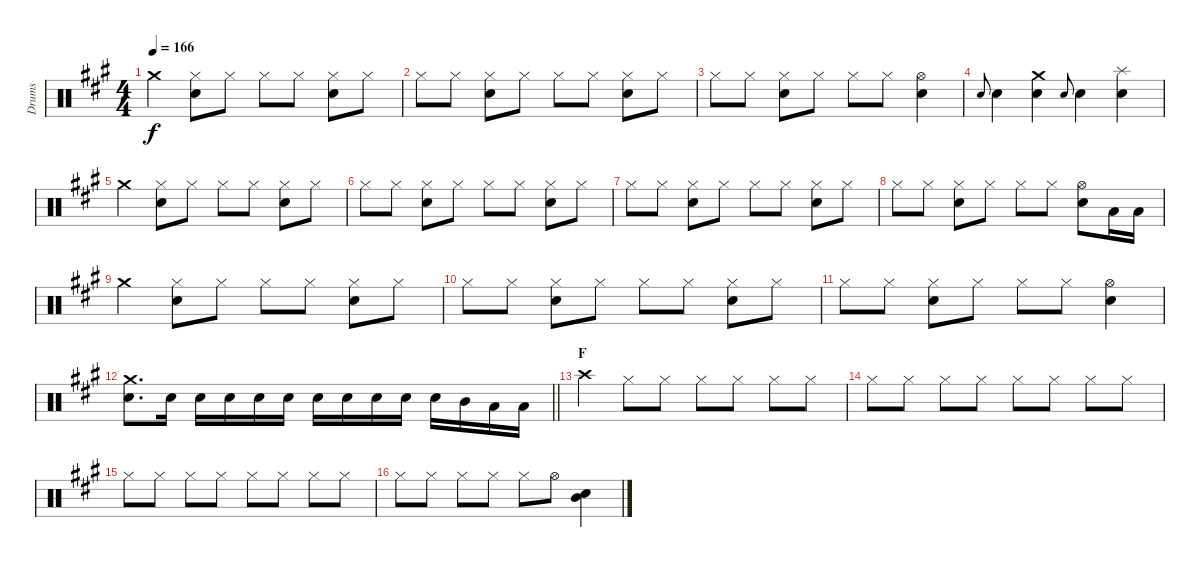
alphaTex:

\track ("Drums" "Drums") {instrument percussion}
\staff {score}
\articulation defaults
\ts (4 4)
\tempo 166
\clef neutral
\ks a "Crash medium (hit)".4{dy f}
("Hi-Hat (closed)" "Snare (hit) 2").8 "Hi-Hat (closed)".8 "Hi-Hat (closed)".8 "Hi-Hat (closed)".8 ("Hi-Hat (closed)" "Snare (hit) 2").8 "Hi-Hat (closed)".8 |
"Hi-Hat (closed)".8 "Hi-Hat (closed)".8 ("Hi-Hat (closed)" "Snare (hit) 2").8 "Hi-Hat (closed)".8 "Hi-Hat (closed)".8 "Hi-Hat (closed)".8 ("Hi-Hat (closed)" "Snare (hit) 2").8 "Hi-Hat (closed)".8 |
"Hi-Hat (closed)".8 "Hi-Hat (closed)".8 ("Hi-Hat (closed)" "Snare (hit) 2").8 "Hi-Hat (closed)".8 "Hi-Hat (closed)".8 "Hi-Hat (closed)".8 ("Hi-Hat (open)" "Snare (hit) 2").4 |
"Snare (hit) 2".8{gr onbeat} "Snare (hit) 2".4 ("Crash medium (hit)" "Snare (hit) 2").4 "Snare (hit) 2".8{gr onbeat} "Snare (hit) 2".4 ("Splash (hit)" "Snare (hit) 2").4 |
"Crash medium (hit)".4 ("Hi-Hat (closed)" "Snare (hit) 2").8 "Hi-Hat (closed)".8 "Hi-Hat (closed)".8 "Hi-Hat (closed)".8 ("Hi-Hat (closed)" "Snare (hit) 2").8 "Hi-Hat (closed)".8 |
"Hi-Hat (closed)".8 "Hi-Hat (closed)".8 ("Hi-Hat (closed)" "Snare (hit) 2").8 "Hi-Hat (closed)".8 "Hi-Hat (closed)".8 "Hi-Hat (closed)".8 ("Hi-Hat (closed)" "Snare (hit) 2").8 "Hi-Hat (closed)".8 |
"Hi-Hat (closed)".8 "Hi-Hat (closed)".8 ("Hi-Hat (closed)" "Snare (hit) 2").8 "Hi-Hat (closed)".8 "Hi-Hat (closed)".8 "Hi-Hat (closed)".8 ("Hi-Hat (closed)" "Snare (hit) 2").8 "Hi-Hat (closed)".8 |
"Hi-Hat (closed)".8 "Hi-Hat (closed)".8 ("Hi-Hat (closed)" "Snare (hit) 2").8 "Hi-Hat (closed)".8 "Hi-Hat (closed)".8 "Hi-Hat (closed)".8 ("Hi-Hat (open)" "Snare (hit) 2").8 "Low Tom (hit)".16 "Low Tom (hit)".16 |
"Crash medium (hit)".4 ("Hi-Hat (closed)" "Snare (hit) 2").8 "Hi-Hat (closed)".8 "Hi-Hat (closed)".8 "Hi-Hat (closed)".8 ("Hi-Hat (closed)" "Snare (hit) 2").8 "Hi-Hat (closed)".8 |
"Hi-Hat (closed)".8 "Hi-Hat (closed)".8 ("Hi-Hat (closed)" "Snare (hit) 2").8 "Hi-Hat (closed)".8 "Hi-Hat (closed)".8 "Hi-Hat (closed)".8 ("Hi-Hat (closed)" "Snare (hit) 2").8 "Hi-Hat (closed)".8 |
"Hi-Hat (closed)".8 "Hi-Hat (closed)".8 ("Hi-Hat (closed)" "Snare (hit) 2").8 "Hi-Hat (closed)".8 "Hi-Hat (closed)".8 "Hi-Hat (closed)".8 ("Hi-Hat (open)" "Snare (hit) 2").4 |
\barLineRight lightlight
("Crash medium (hit)" "Snare (hit) 2").8{d} "Snare (hit) 2".16 "Snare (hit) 2".16 "Snare (hit) 2".16 "Snare (hit) 2".16 "Snare (hit) 2".16 "Snare (hit) 2".16 "Snare (hit) 2".16 "Snare (hit) 2".16 "Snare (hit) 2".16 "Snare (hit) 2".16 "Mid Tom (hit)".16 "Low Tom (hit)".16 "Low Tom (hit)".16 |
\section ("" "F")
"Crash high (hit)".4 "Hi-Hat (closed)".8 "Hi-Hat (closed)".8 "Hi-Hat (closed)".8 "Hi-Hat (closed)".8 "Hi-Hat (closed)".8 "Hi-Hat (closed)".8 |
"Hi-Hat (closed)".8 "Hi-Hat (closed)".8 "Hi-Hat (closed)".8 "Hi-Hat (closed)".8 "Hi-Hat (closed)".8 "Hi-Hat (closed)".8 "Hi-Hat (closed)".8 "Hi-Hat (closed)".8 |
"Hi-Hat (closed)".8 "Hi-Hat (closed)".8 "Hi-Hat (closed)".8 "Hi-Hat (closed)".8 "Hi-Hat (closed)".8 "Hi-Hat (closed)".8 "Hi-Hat (closed)".8 "Hi-Hat (closed)".8 |
"Hi-Hat (closed)".8 "Hi-Hat (closed)".8 "Hi-Hat (closed)".8 "Hi-Hat (closed)".8 "Hi-Hat (closed)".8 "Hi-Hat (open)".8 ("Snare (hit) 2" "Mid Tom (hit)").4
